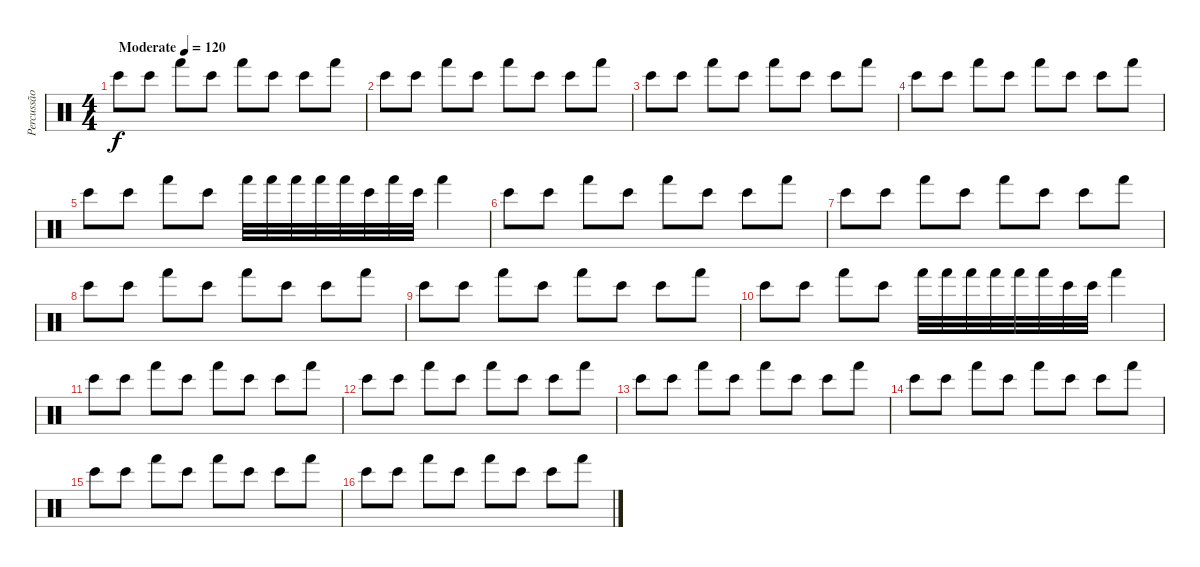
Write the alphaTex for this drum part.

\track ("Percussão" "Percussão") {instrument percussion}
\staff {score}
\articulation defaults
\ts (4 4)
\tempo (120 "Moderate")
\clef neutral
\ks c "Bongo High (hit)".8{dy f} "Bongo High (hit)".8 "Hand (hit)".8 "Bongo High (hit)".8 "Hand (hit)".8 "Bongo High (hit)".8 "Bongo High (hit)".8 "Hand (hit)".8
|
"Bongo High (hit)".8 "Bongo High (hit)".8 "Hand (hit)".8 "Bongo High (hit)".8 "Hand (hit)".8 "Bongo High (hit)".8 "Bongo High (hit)".8 "Hand (hit)".8 |
"Bongo High (hit)".8 "Bongo High (hit)".8 "Hand (hit)".8 "Bongo High (hit)".8 "Hand (hit)".8 "Bongo High (hit)".8 "Bongo High (hit)".8 "Hand (hit)".8 |
"Bongo High (hit)".8 "Bongo High (hit)".8 "Hand (hit)".8 "Bongo High (hit)".8 "Hand (hit)".8 "Bongo High (hit)".8 "Bongo High (hit)".8 "Hand (hit)".8 |
"Bongo High (hit)".8 "Bongo High (hit)".8 "Hand (hit)".8 "Bongo High (hit)".8 "Hand (hit)".32 "Hand (hit)".32 "Hand (hit)".32 "Hand (hit)".32 "Hand (hit)".32 "Bongo High (hit)".32 "Hand (hit)".32 "Bongo High (hit)".32 "Hand (hit)".4 |
"Bongo High (hit)".8 "Bongo High (hit)".8 "Hand (hit)".8 "Bongo High (hit)".8 "Hand (hit)".8 "Bongo High (hit)".8 "Bongo High (hit)".8 "Hand (hit)".8 |
"Bongo High (hit)".8 "Bongo High (hit)".8 "Hand (hit)".8 "Bongo High (hit)".8 "Hand (hit)".8 "Bongo High (hit)".8 "Bongo High (hit)".8 "Hand (hit)".8 |
"Bongo High (hit)".8 "Bongo High (hit)".8 "Hand (hit)".8 "Bongo High (hit)".8 "Hand (hit)".8 "Bongo High (hit)".8 "Bongo High (hit)".8 "Hand (hit)".8 |
"Bongo High (hit)".8 "Bongo High (hit)".8 "Hand (hit)".8 "Bongo High (hit)".8 "Hand (hit)".8 "Bongo High (hit)".8 "Bongo High (hit)".8 "Hand (hit)".8 |
"Bongo High (hit)".8 "Bongo High (hit)".8 "Hand (hit)".8 "Bongo High (hit)".8 "Hand (hit)".32 "Hand (hit)".32 "Hand (hit)".32 "Hand (hit)".32 "Hand (hit)".32 "Hand (hit)".32 "Bongo High (hit)".32 "Bongo High (hit)".32 "Hand (hit)".4 |
"Bongo High (hit)".8 "Bongo High (hit)".8 "Hand (hit)".8 "Bongo High (hit)".8 "Hand (hit)".8 "Bongo High (hit)".8 "Bongo High (hit)".8 "Hand (hit)".8 |
"Bongo High (hit)".8 "Bongo High (hit)".8 "Hand (hit)".8 "Bongo High (hit)".8 "Hand (hit)".8 "Bongo High (hit)".8 "Bongo High (hit)".8 "Hand (hit)".8 |
"Bongo High (hit)".8 "Bongo High (hit)".8 "Hand (hit)".8 "Bongo High (hit)".8 "Hand (hit)".8 "Bongo High (hit)".8 "Bongo High (hit)".8 "Hand (hit)".8 |
"Bongo High (hit)".8 "Bongo High (hit)".8 "Hand (hit)".8 "Bongo High (hit)".8 "Hand (hit)".8 "Bongo High (hit)".8 "Bongo High (hit)".8 "Hand (hit)".8 |
"Bongo High (hit)".8 "Bongo High (hit)".8 "Hand (hit)".8 "Bongo High (hit)".8 "Hand (hit)".8 "Bongo High (hit)".8 "Bongo High (hit)".8 "Hand (hit)".8 |
"Bongo High (hit)".8 "Bongo High (hit)".8 "Hand (hit)".8 "Bongo High (hit)".8 "Hand (hit)".8 "Bongo High (hit)".8 "Bongo High (hit)".8 "Hand (hit)".8
